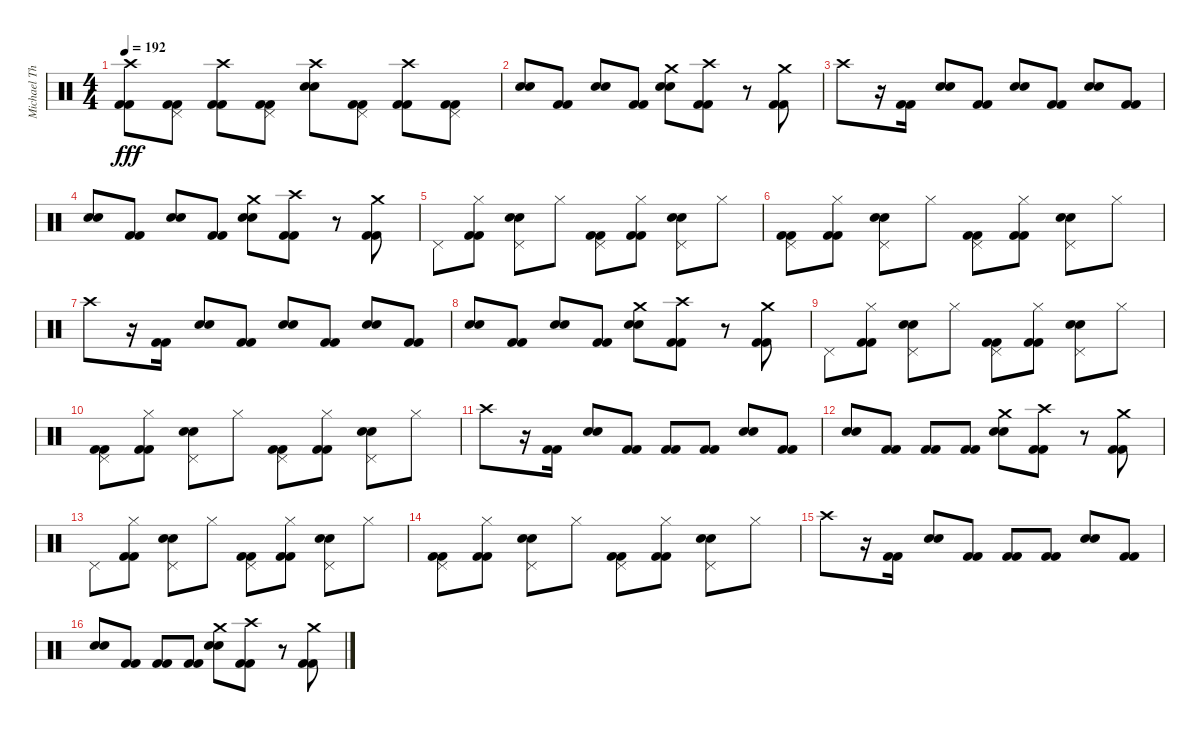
\track ("Michael Thomas" "Michael Th") {instrument percussion}
\staff {score}
\articulation defaults
\ts (4 4)
\tempo 192
\clef neutral
\ks c
("Crash high (hit)" "Kick (hit) 2" "Kick (hit) 2").8{dy fff} ("Pedal Hi-Hat (hit)" "Kick (hit) 2" "Kick (hit) 2").8 ("Crash high (hit)" "Kick (hit) 2" "Kick (hit) 2").8 ("Pedal Hi-Hat (hit)" "Kick (hit) 2" "Kick (hit) 2").8 ("Crash high (hit)" "Snare (hit) 2" "Electric Snare (hit)").8 ("Pedal Hi-Hat (hit)" "Kick (hit) 2" "Kick (hit) 2").8 ("Crash high (hit)" "Kick (hit) 2" "Kick (hit) 2").8 ("Pedal Hi-Hat (hit)" "Kick (hit) 2" "Kick (hit) 2").8 |
("Snare (hit) 2" "Electric Snare (hit)").8 ("Kick (hit) 2" "Kick (hit) 2").8 ("Snare (hit) 2" "Electric Snare (hit)").8 ("Kick (hit) 2" "Kick (hit) 2").8 ("Crash medium (hit)" "Snare (hit) 2" "Electric Snare (hit)").8 ("Crash high (hit)" "Kick (hit) 2" "Kick (hit) 2").8 r.8 ("Crash medium (hit)" "Kick (hit) 2" "Kick (hit) 2").8 |
"Crash high (hit)".8 r.16 ("Kick (hit) 2" "Kick (hit) 2").16 ("Snare (hit) 2" "Electric Snare (hit)").8 ("Kick (hit) 2" "Kick (hit) 2").8 ("Snare (hit) 2" "Electric Snare (hit)").8 ("Kick (hit) 2" "Kick (hit) 2").8 ("Snare (hit) 2" "Electric Snare (hit)").8 ("Kick (hit) 2" "Kick (hit) 2").8 |
("Snare (hit) 2" "Electric Snare (hit)").8 ("Kick (hit) 2" "Kick (hit) 2").8 ("Snare (hit) 2" "Electric Snare (hit)").8 ("Kick (hit) 2" "Kick (hit) 2").8 ("Crash medium (hit)" "Snare (hit) 2" "Electric Snare (hit)").8 ("Crash high (hit)" "Kick (hit) 2" "Kick (hit) 2").8 r.8 ("Crash medium (hit)" "Kick (hit) 2" "Kick (hit) 2").8 |
"Pedal Hi-Hat (hit)".8 ("Hi-Hat (closed)" "Kick (hit) 2" "Kick (hit) 2").8 ("Pedal Hi-Hat (hit)" "Snare (hit) 2" "Electric Snare (hit)").8 "Hi-Hat (closed)".8 ("Pedal Hi-Hat (hit)" "Kick (hit) 2" "Kick (hit) 2").8 ("Hi-Hat (closed)" "Kick (hit) 2" "Kick (hit) 2").8 ("Pedal Hi-Hat (hit)" "Snare (hit) 2" "Electric Snare (hit)").8 "Hi-Hat (closed)".8 |
("Pedal Hi-Hat (hit)" "Kick (hit) 2" "Kick (hit) 2").8 ("Hi-Hat (closed)" "Kick (hit) 2" "Kick (hit) 2").8 ("Pedal Hi-Hat (hit)" "Snare (hit) 2" "Electric Snare (hit)").8 "Hi-Hat (closed)".8 ("Pedal Hi-Hat (hit)" "Kick (hit) 2" "Kick (hit) 2").8 ("Hi-Hat (closed)" "Kick (hit) 2" "Kick (hit) 2").8 ("Pedal Hi-Hat (hit)" "Snare (hit) 2" "Electric Snare (hit)").8 "Hi-Hat (closed)".8 |
"Crash high (hit)".8 r.16 ("Kick (hit) 2" "Kick (hit) 2").16 ("Snare (hit) 2" "Electric Snare (hit)").8 ("Kick (hit) 2" "Kick (hit) 2").8 ("Snare (hit) 2" "Electric Snare (hit)").8 ("Kick (hit) 2" "Kick (hit) 2").8 ("Snare (hit) 2" "Electric Snare (hit)").8 ("Kick (hit) 2" "Kick (hit) 2").8 |
("Snare (hit) 2" "Electric Snare (hit)").8 ("Kick (hit) 2" "Kick (hit) 2").8 ("Snare (hit) 2" "Electric Snare (hit)").8 ("Kick (hit) 2" "Kick (hit) 2").8 ("Crash medium (hit)" "Snare (hit) 2" "Electric Snare (hit)").8 ("Crash high (hit)" "Kick (hit) 2" "Kick (hit) 2").8 r.8 ("Crash medium (hit)" "Kick (hit) 2" "Kick (hit) 2").8 |
"Pedal Hi-Hat (hit)".8 ("Hi-Hat (closed)" "Kick (hit) 2" "Kick (hit) 2").8 ("Pedal Hi-Hat (hit)" "Snare (hit) 2" "Electric Snare (hit)").8 "Hi-Hat (closed)".8 ("Pedal Hi-Hat (hit)" "Kick (hit) 2" "Kick (hit) 2").8 ("Hi-Hat (closed)" "Kick (hit) 2" "Kick (hit) 2").8 ("Pedal Hi-Hat (hit)" "Snare (hit) 2" "Electric Snare (hit)").8 "Hi-Hat (closed)".8 |
("Pedal Hi-Hat (hit)" "Kick (hit) 2" "Kick (hit) 2").8 ("Hi-Hat (closed)" "Kick (hit) 2" "Kick (hit) 2").8 ("Pedal Hi-Hat (hit)" "Snare (hit) 2" "Electric Snare (hit)").8 "Hi-Hat (closed)".8 ("Pedal Hi-Hat (hit)" "Kick (hit) 2" "Kick (hit) 2").8 ("Hi-Hat (closed)" "Kick (hit) 2" "Kick (hit) 2").8 ("Pedal Hi-Hat (hit)" "Snare (hit) 2" "Electric Snare (hit)").8 "Hi-Hat (closed)".8 |
"Crash high (hit)".8 r.16 ("Kick (hit) 2" "Kick (hit) 2").16 ("Snare (hit) 2" "Electric Snare (hit)").8 ("Kick (hit) 2" "Kick (hit) 2").8 ("Kick (hit) 2" "Kick (hit) 2").8 ("Kick (hit) 2" "Kick (hit) 2").8 ("Snare (hit) 2" "Electric Snare (hit)").8 ("Kick (hit) 2" "Kick (hit) 2").8 |
("Snare (hit) 2" "Electric Snare (hit)").8 ("Kick (hit) 2" "Kick (hit) 2").8 ("Kick (hit) 2" "Kick (hit) 2").8 ("Kick (hit) 2" "Kick (hit) 2").8 ("Crash medium (hit)" "Snare (hit) 2" "Electric Snare (hit)").8 ("Crash high (hit)" "Kick (hit) 2" "Kick (hit) 2").8 r.8 ("Crash medium (hit)" "Kick (hit) 2" "Kick (hit) 2").8 |
"Pedal Hi-Hat (hit)".8 ("Hi-Hat (closed)" "Kick (hit) 2" "Kick (hit) 2").8 ("Pedal Hi-Hat (hit)" "Snare (hit) 2" "Electric Snare (hit)").8 "Hi-Hat (closed)".8 ("Pedal Hi-Hat (hit)" "Kick (hit) 2" "Kick (hit) 2").8 ("Hi-Hat (closed)" "Kick (hit) 2" "Kick (hit) 2").8 ("Pedal Hi-Hat (hit)" "Snare (hit) 2" "Electric Snare (hit)").8 "Hi-Hat (closed)".8 |
("Pedal Hi-Hat (hit)" "Kick (hit) 2" "Kick (hit) 2").8 ("Hi-Hat (closed)" "Kick (hit) 2" "Kick (hit) 2").8 ("Pedal Hi-Hat (hit)" "Snare (hit) 2" "Electric Snare (hit)").8 "Hi-Hat (closed)".8 ("Pedal Hi-Hat (hit)" "Kick (hit) 2" "Kick (hit) 2").8 ("Hi-Hat (closed)" "Kick (hit) 2" "Kick (hit) 2").8 ("Pedal Hi-Hat (hit)" "Snare (hit) 2" "Electric Snare (hit)").8 "Hi-Hat (closed)".8 |
"Crash high (hit)".8 r.16 ("Kick (hit) 2" "Kick (hit) 2").16 ("Snare (hit) 2" "Electric Snare (hit)").8 ("Kick (hit) 2" "Kick (hit) 2").8 ("Kick (hit) 2" "Kick (hit) 2").8 ("Kick (hit) 2" "Kick (hit) 2").8 ("Snare (hit) 2" "Electric Snare (hit)").8 ("Kick (hit) 2" "Kick (hit) 2").8 |
("Snare (hit) 2" "Electric Snare (hit)").8 ("Kick (hit) 2" "Kick (hit) 2").8 ("Kick (hit) 2" "Kick (hit) 2").8 ("Kick (hit) 2" "Kick (hit) 2").8 ("Crash medium (hit)" "Snare (hit) 2" "Electric Snare (hit)").8 ("Crash high (hit)" "Kick (hit) 2" "Kick (hit) 2").8 r.8 ("Crash medium (hit)" "Kick (hit) 2" "Kick (hit) 2").8
